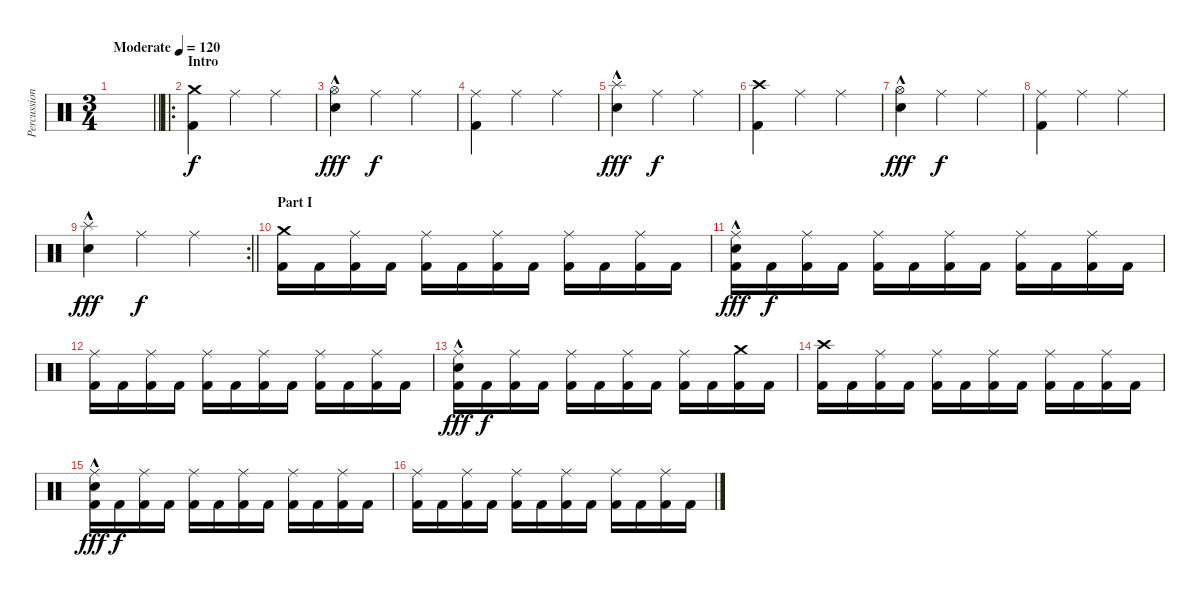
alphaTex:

\track ("Percussion" "Percussion") {instrument percussion}
\staff {score}
\articulation defaults
\ts (3 4)
\tempo (120 "Moderate")
\clef neutral
\barLineRight lightlight
\ks c
|
\ro
\section ("" "Intro")
("Crash medium (hit)" "Kick (hit) 2").4 "Ride (middle)".4 "Ride (middle)".4 |
("Hi-Hat (open)" "Electric Snare (hit)"{hac}).4{dy fff} "Ride (middle)".4{dy f} "Ride (middle)".4 |
("Ride (middle)" "Kick (hit) 2").4 "Ride (middle)".4 "Ride (middle)".4 |
("Splash (hit)" "Electric Snare (hit)"{hac}).4{dy fff} "Ride (middle)".4{dy f} "Ride (middle)".4 |
("Crash high (hit)" "Kick (hit) 2").4 "Ride (middle)".4 "Ride (middle)".4 |
("Hi-Hat (open)" "Electric Snare (hit)"{hac}).4{dy fff} "Ride (middle)".4{dy f} "Ride (middle)".4 |
("Ride (middle)" "Kick (hit) 2").4 "Ride (middle)".4 "Ride (middle)".4 |
\rc 2
\barLineRight lightlight
("Splash (hit)" "Electric Snare (hit)"{hac}).4{dy fff} "Ride (middle)".4{dy f} "Ride (middle)".4 |
\section ("" "Part I")
("Crash medium (hit)" "Kick (hit) 2").16 "Kick (hit) 2".16 ("Ride (middle)" "Kick (hit) 2").16 "Kick (hit) 2".16 ("Ride (middle)" "Kick (hit) 2").16 "Kick (hit) 2".16 ("Ride (middle)" "Kick (hit) 2").16 "Kick (hit) 2".16 ("Ride (middle)" "Kick (hit) 2").16 "Kick (hit) 2".16 ("Ride (middle)" "Kick (hit) 2").16 "Kick (hit) 2".16 |
("Electric Snare (hit)"{hac} "Ride (middle)" "Kick (hit) 2").16{dy fff} "Kick (hit) 2".16{dy f} ("Ride (middle)" "Kick (hit) 2").16 "Kick (hit) 2".16 ("Ride (middle)" "Kick (hit) 2").16 "Kick (hit) 2".16 ("Ride (middle)" "Kick (hit) 2").16 "Kick (hit) 2".16 ("Ride (middle)" "Kick (hit) 2").16 "Kick (hit) 2".16 ("Ride (middle)" "Kick (hit) 2").16 "Kick (hit) 2".16 |
("Ride (middle)" "Kick (hit) 2").16 "Kick (hit) 2".16 ("Ride (middle)" "Kick (hit) 2").16 "Kick (hit) 2".16 ("Ride (middle)" "Kick (hit) 2").16 "Kick (hit) 2".16 ("Ride (middle)" "Kick (hit) 2").16 "Kick (hit) 2".16 ("Ride (middle)" "Kick (hit) 2").16 "Kick (hit) 2".16 ("Ride (middle)" "Kick (hit) 2").16 "Kick (hit) 2".16 |
("Electric Snare (hit)"{hac} "Ride (middle)" "Kick (hit) 2").16{dy fff} "Kick (hit) 2".16{dy f} ("Ride (middle)" "Kick (hit) 2").16 "Kick (hit) 2".16 ("Ride (middle)" "Kick (hit) 2").16 "Kick (hit) 2".16 ("Ride (middle)" "Kick (hit) 2").16 "Kick (hit) 2".16 ("Ride (middle)" "Kick (hit) 2").16 "Kick (hit) 2".16 ("Crash medium (hit)" "Kick (hit) 2").16 "Kick (hit) 2".16 |
("Crash high (hit)" "Kick (hit) 2").16 "Kick (hit) 2".16 ("Ride (middle)" "Kick (hit) 2").16 "Kick (hit) 2".16 ("Ride (middle)" "Kick (hit) 2").16 "Kick (hit) 2".16 ("Ride (middle)" "Kick (hit) 2").16 "Kick (hit) 2".16 ("Ride (middle)" "Kick (hit) 2").16 "Kick (hit) 2".16 ("Ride (middle)" "Kick (hit) 2").16 "Kick (hit) 2".16 |
("Electric Snare (hit)"{hac} "Ride (middle)" "Kick (hit) 2").16{dy fff} "Kick (hit) 2".16{dy f} ("Ride (middle)" "Kick (hit) 2").16 "Kick (hit) 2".16 ("Ride (middle)" "Kick (hit) 2").16 "Kick (hit) 2".16 ("Ride (middle)" "Kick (hit) 2").16 "Kick (hit) 2".16 ("Ride (middle)" "Kick (hit) 2").16 "Kick (hit) 2".16 ("Ride (middle)" "Kick (hit) 2").16 "Kick (hit) 2".16 |
("Ride (middle)" "Kick (hit) 2").16 "Kick (hit) 2".16 ("Ride (middle)" "Kick (hit) 2").16 "Kick (hit) 2".16 ("Ride (middle)" "Kick (hit) 2").16 "Kick (hit) 2".16 ("Ride (middle)" "Kick (hit) 2").16 "Kick (hit) 2".16 ("Ride (middle)" "Kick (hit) 2").16 "Kick (hit) 2".16 ("Ride (middle)" "Kick (hit) 2").16 "Kick (hit) 2".16
